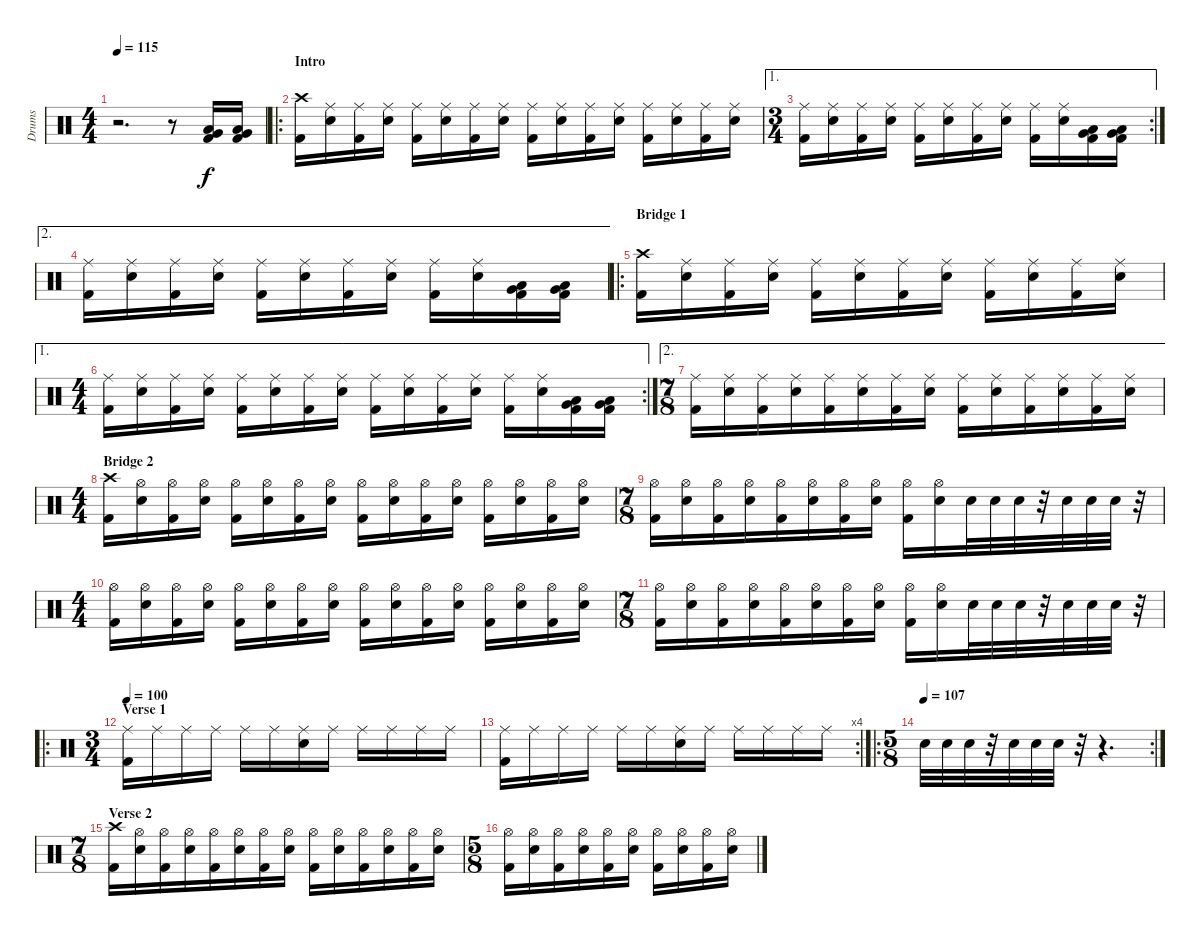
\track ("Drums" "Drums") {instrument percussion}
\staff {score}
\articulation defaults
\ts (4 4)
\tempo 115
\clef neutral
\ks c
r.2{d dy f} r.8 ("Very Low Tom (hit)" "Low Floor Tom (hit)" "Kick (hit) 2").16 ("Very Low Tom (hit)" "Low Floor Tom (hit)" "Kick (hit) 2").16 |
\ro
\section ("" "Intro")
("Crash high (hit)" "Kick (hit) 2").16 ("Ride (middle)" "Electric Snare (hit)").16 ("Ride (middle)" "Kick (hit) 2").16 ("Ride (middle)" "Electric Snare (hit)").16 ("Ride (middle)" "Kick (hit) 2").16 ("Ride (middle)" "Electric Snare (hit)").16 ("Ride (middle)" "Kick (hit) 2").16 ("Ride (middle)" "Electric Snare (hit)").16 ("Ride (middle)" "Kick (hit) 2").16 ("Ride (middle)" "Electric Snare (hit)").16 ("Ride (middle)" "Kick (hit) 2").16 ("Ride (middle)" "Electric Snare (hit)").16 ("Ride (middle)" "Kick (hit) 2").16 ("Ride (middle)" "Electric Snare (hit)").16 ("Ride (middle)" "Kick (hit) 2").16 ("Ride (middle)" "Electric Snare (hit)").16 |
\ae 1
\rc 2
\ts (3 4)
("Ride (middle)" "Kick (hit) 2").16 ("Ride (middle)" "Electric Snare (hit)").16 ("Ride (middle)" "Kick (hit) 2").16 ("Ride (middle)" "Electric Snare (hit)").16 ("Ride (middle)" "Kick (hit) 2").16 ("Ride (middle)" "Electric Snare (hit)").16 ("Ride (middle)" "Kick (hit) 2").16 ("Ride (middle)" "Electric Snare (hit)").16 ("Ride (middle)" "Kick (hit) 2").16 ("Ride (middle)" "Electric Snare (hit)").16 ("Very Low Tom (hit)" "Low Floor Tom (hit)" "Kick (hit) 2").16 ("Very Low Tom (hit)" "Low Floor Tom (hit)" "Kick (hit) 2").16 |
\ae 2
("Ride (middle)" "Kick (hit) 2").16 ("Ride (middle)" "Electric Snare (hit)").16 ("Ride (middle)" "Kick (hit) 2").16 ("Ride (middle)" "Electric Snare (hit)").16 ("Ride (middle)" "Kick (hit) 2").16 ("Ride (middle)" "Electric Snare (hit)").16 ("Ride (middle)" "Kick (hit) 2").16 ("Ride (middle)" "Electric Snare (hit)").16 ("Ride (middle)" "Kick (hit) 2").16 ("Ride (middle)" "Electric Snare (hit)").16 ("Very Low Tom (hit)" "Low Floor Tom (hit)" "Kick (hit) 2").16 ("Very Low Tom (hit)" "Low Floor Tom (hit)" "Kick (hit) 2").16 |
\ro
\section ("" "Bridge 1")
("Crash high (hit)" "Kick (hit) 2").16 ("Ride (middle)" "Electric Snare (hit)").16 ("Ride (middle)" "Kick (hit) 2").16 ("Ride (middle)" "Electric Snare (hit)").16 ("Ride (middle)" "Kick (hit) 2").16 ("Ride (middle)" "Electric Snare (hit)").16 ("Ride (middle)" "Kick (hit) 2").16 ("Ride (middle)" "Electric Snare (hit)").16 ("Ride (middle)" "Kick (hit) 2").16 ("Ride (middle)" "Electric Snare (hit)").16 ("Ride (middle)" "Kick (hit) 2").16 ("Ride (middle)" "Electric Snare (hit)").16 |
\ae 1
\rc 2
\ts (4 4)
("Ride (middle)" "Kick (hit) 2").16 ("Ride (middle)" "Electric Snare (hit)").16 ("Ride (middle)" "Kick (hit) 2").16 ("Ride (middle)" "Electric Snare (hit)").16 ("Ride (middle)" "Kick (hit) 2").16 ("Ride (middle)" "Electric Snare (hit)").16 ("Ride (middle)" "Kick (hit) 2").16 ("Ride (middle)" "Electric Snare (hit)").16 ("Ride (middle)" "Kick (hit) 2").16 ("Ride (middle)" "Electric Snare (hit)").16 ("Ride (middle)" "Kick (hit) 2").16 ("Ride (middle)" "Electric Snare (hit)").16 ("Ride (middle)" "Kick (hit) 2").16 ("Ride (middle)" "Electric Snare (hit)").16 ("Very Low Tom (hit)" "Low Floor Tom (hit)" "Kick (hit) 2").16 ("Very Low Tom (hit)" "Low Floor Tom (hit)" "Kick (hit) 2").16 |
\ae 2
\ts (7 8)
("Ride (middle)" "Kick (hit) 2").16 ("Ride (middle)" "Electric Snare (hit)").16 ("Ride (middle)" "Kick (hit) 2").16 ("Ride (middle)" "Electric Snare (hit)").16 ("Ride (middle)" "Kick (hit) 2").16 ("Ride (middle)" "Electric Snare (hit)").16 ("Ride (middle)" "Kick (hit) 2").16 ("Ride (middle)" "Electric Snare (hit)").16 ("Ride (middle)" "Kick (hit) 2").16 ("Ride (middle)" "Electric Snare (hit)").16 ("Ride (middle)" "Kick (hit) 2").16 ("Ride (middle)" "Electric Snare (hit)").16 ("Ride (middle)" "Kick (hit) 2").16 ("Ride (middle)" "Electric Snare (hit)").16 |
\ts (4 4)
\section ("" "Bridge 2")
("Crash high (hit)" "Kick (hit) 2").16 ("Hi-Hat (open)" "Electric Snare (hit)").16 ("Hi-Hat (open)" "Kick (hit) 2").16 ("Hi-Hat (open)" "Electric Snare (hit)").16 ("Hi-Hat (open)" "Kick (hit) 2").16 ("Hi-Hat (open)" "Electric Snare (hit)").16 ("Hi-Hat (open)" "Kick (hit) 2").16 ("Hi-Hat (open)" "Electric Snare (hit)").16 ("Hi-Hat (open)" "Kick (hit) 2").16 ("Hi-Hat (open)" "Electric Snare (hit)").16 ("Hi-Hat (open)" "Kick (hit) 2").16 ("Hi-Hat (open)" "Electric Snare (hit)").16 ("Hi-Hat (open)" "Kick (hit) 2").16 ("Hi-Hat (open)" "Electric Snare (hit)").16 ("Hi-Hat (open)" "Kick (hit) 2").16 ("Hi-Hat (open)" "Electric Snare (hit)").16 |
\ts (7 8)
("Hi-Hat (open)" "Kick (hit) 2").16 ("Hi-Hat (open)" "Electric Snare (hit)").16 ("Hi-Hat (open)" "Kick (hit) 2").16 ("Hi-Hat (open)" "Electric Snare (hit)").16 ("Hi-Hat (open)" "Kick (hit) 2").16 ("Hi-Hat (open)" "Electric Snare (hit)").16 ("Hi-Hat (open)" "Kick (hit) 2").16 ("Hi-Hat (open)" "Electric Snare (hit)").16 ("Hi-Hat (open)" "Kick (hit) 2").16 ("Hi-Hat (open)" "Electric Snare (hit)").16 "Electric Snare (hit)".32 "Electric Snare (hit)".32 "Electric Snare (hit)".32 r.32 "Electric Snare (hit)".32 "Electric Snare (hit)".32 "Electric Snare (hit)".32 r.32 |
\ts (4 4)
("Hi-Hat (open)" "Kick (hit) 2").16 ("Hi-Hat (open)" "Electric Snare (hit)").16 ("Hi-Hat (open)" "Kick (hit) 2").16 ("Hi-Hat (open)" "Electric Snare (hit)").16 ("Hi-Hat (open)" "Kick (hit) 2").16 ("Hi-Hat (open)" "Electric Snare (hit)").16 ("Hi-Hat (open)" "Kick (hit) 2").16 ("Hi-Hat (open)" "Electric Snare (hit)").16 ("Hi-Hat (open)" "Kick (hit) 2").16 ("Hi-Hat (open)" "Electric Snare (hit)").16 ("Hi-Hat (open)" "Kick (hit) 2").16 ("Hi-Hat (open)" "Electric Snare (hit)").16 ("Hi-Hat (open)" "Kick (hit) 2").16 ("Hi-Hat (open)" "Electric Snare (hit)").16 ("Hi-Hat (open)" "Kick (hit) 2").16 ("Hi-Hat (open)" "Electric Snare (hit)").16 |
\ts (7 8)
("Hi-Hat (open)" "Kick (hit) 2").16 ("Hi-Hat (open)" "Electric Snare (hit)").16 ("Hi-Hat (open)" "Kick (hit) 2").16 ("Hi-Hat (open)" "Electric Snare (hit)").16 ("Hi-Hat (open)" "Kick (hit) 2").16 ("Hi-Hat (open)" "Electric Snare (hit)").16 ("Hi-Hat (open)" "Kick (hit) 2").16 ("Hi-Hat (open)" "Electric Snare (hit)").16 ("Hi-Hat (open)" "Kick (hit) 2").16 ("Hi-Hat (open)" "Electric Snare (hit)").16 "Electric Snare (hit)".32 "Electric Snare (hit)".32 "Electric Snare (hit)".32 r.32 "Electric Snare (hit)".32 "Electric Snare (hit)".32 "Electric Snare (hit)".32 r.32 |
\ro
\ts (3 4)
\section ("" "Verse 1")
\tempo 100
("Ride (middle)" "Kick (hit) 2").16 "Ride (middle)".16 "Ride (middle)".16 "Ride (middle)".16 "Ride (middle)".16 "Ride (middle)".16 ("Ride (middle)" "Electric Snare (hit)").16 "Ride (middle)".16 "Ride (middle)".16 "Ride (middle)".16 "Ride (middle)".16 "Ride (middle)".16 |
\rc 4
("Ride (middle)" "Kick (hit) 2").16 "Ride (middle)".16 "Ride (middle)".16 "Ride (middle)".16 "Ride (middle)".16 "Ride (middle)".16 ("Ride (middle)" "Electric Snare (hit)").16 "Ride (middle)".16 "Ride (middle)".16 "Ride (middle)".16 "Ride (middle)".16 "Ride (middle)".16 |
\ro
\rc 2
\ts (5 8)
\tempo (107)
"Electric Snare (hit)".32 "Electric Snare (hit)".32 "Electric Snare (hit)".32 r.32 "Electric Snare (hit)".32 "Electric Snare (hit)".32 "Electric Snare (hit)".32 r.32 r.4{d} |
\ts (7 8)
\section ("" "Verse 2")
("Crash high (hit)" "Kick (hit) 2").16 ("Hi-Hat (open)" "Electric Snare (hit)").16 ("Hi-Hat (open)" "Kick (hit) 2").16 ("Hi-Hat (open)" "Electric Snare (hit)").16 ("Hi-Hat (open)" "Kick (hit) 2").16 ("Hi-Hat (open)" "Electric Snare (hit)").16 ("Hi-Hat (open)" "Kick (hit) 2").16 ("Hi-Hat (open)" "Electric Snare (hit)").16 ("Hi-Hat (open)" "Kick (hit) 2").16 ("Hi-Hat (open)" "Electric Snare (hit)").16 ("Hi-Hat (open)" "Kick (hit) 2").16 ("Hi-Hat (open)" "Electric Snare (hit)").16 ("Hi-Hat (open)" "Kick (hit) 2").16 ("Hi-Hat (open)" "Electric Snare (hit)").16 |
\ts (5 8)
("Hi-Hat (open)" "Kick (hit) 2").16 ("Hi-Hat (open)" "Electric Snare (hit)").16 ("Hi-Hat (open)" "Kick (hit) 2").16 ("Hi-Hat (open)" "Electric Snare (hit)").16 ("Hi-Hat (open)" "Kick (hit) 2").16 ("Hi-Hat (open)" "Electric Snare (hit)").16 ("Hi-Hat (open)" "Kick (hit) 2").16 ("Hi-Hat (open)" "Electric Snare (hit)").16 ("Hi-Hat (open)" "Kick (hit) 2").16 ("Hi-Hat (open)" "Electric Snare (hit)").16
